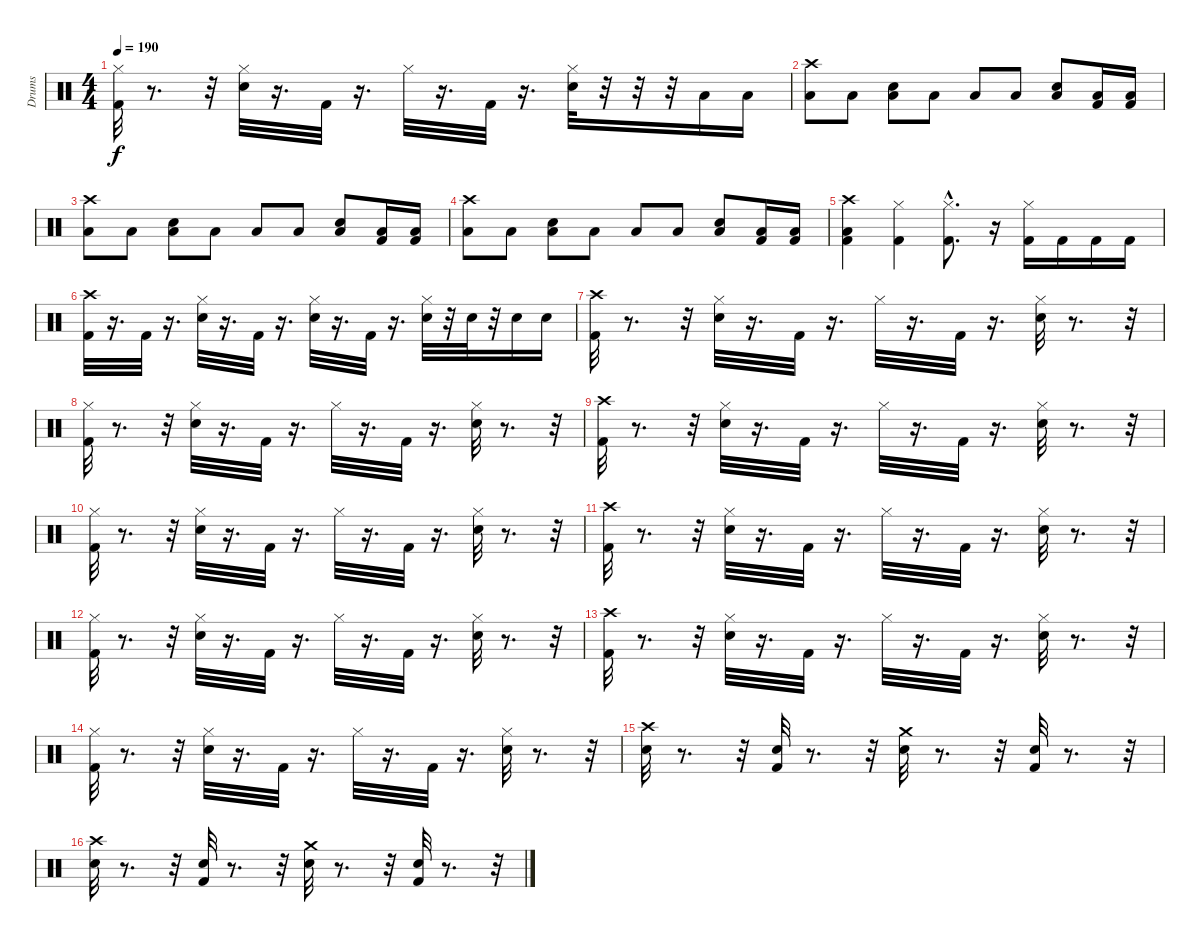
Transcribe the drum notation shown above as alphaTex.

\track ("Drums" "Drums") {instrument percussion}
\staff {score}
\articulation defaults
\ts (4 4)
\tempo 190
\clef neutral
\ks c
("Kick (hit) 2" "Hi-Hat (closed)").32{dy f} r.8{d} r.32 ("Snare (hit) 2" "Hi-Hat (closed)").32 r.16{d} "Kick (hit) 2".32 r.16{d} "Hi-Hat (closed)".32 r.16{d} "Kick (hit) 2".32 r.16{d} ("Snare (hit) 2" "Hi-Hat (closed)").32 r.32 r.32 r.32 "Low Tom (hit)".16 "Low Tom (hit)".16 |
("Crash high (hit)" "Low Tom (hit)").8 "Low Tom (hit)".8 ("Low Tom (hit)" "Snare (hit) 2").8 "Low Tom (hit)".8 "Low Tom (hit)".8 "Low Tom (hit)".8 ("Low Tom (hit)" "Snare (hit) 2").8 ("Low Tom (hit)" "Kick (hit) 2").16 ("Low Tom (hit)" "Kick (hit) 2").16 |
("Crash high (hit)" "Low Tom (hit)").8 "Low Tom (hit)".8 ("Low Tom (hit)" "Snare (hit) 2").8 "Low Tom (hit)".8 "Low Tom (hit)".8 "Low Tom (hit)".8 ("Low Tom (hit)" "Snare (hit) 2").8 ("Low Tom (hit)" "Kick (hit) 2").16 ("Low Tom (hit)" "Kick (hit) 2").16 |
("Crash high (hit)" "Low Tom (hit)").8 "Low Tom (hit)".8 ("Low Tom (hit)" "Snare (hit) 2").8 "Low Tom (hit)".8 "Low Tom (hit)".8 "Low Tom (hit)".8 ("Low Tom (hit)" "Snare (hit) 2").8 ("Low Tom (hit)" "Kick (hit) 2").16 ("Low Tom (hit)" "Kick (hit) 2").16 |
("Crash high (hit)" "Low Tom (hit)" "Kick (hit) 2").4 ("Hi-Hat (closed)" "Kick (hit) 2").4 ("Hi-Hat (closed)"{hac} "Kick (hit) 2"{hac}).8{d} r.16 ("Hi-Hat (closed)" "Kick (hit) 2").16 "Kick (hit) 2".16 "Kick (hit) 2".16 "Kick (hit) 2".16 |
("Crash high (hit)" "Kick (hit) 2").32 r.16{d} "Kick (hit) 2".32 r.16{d} ("Hi-Hat (closed)" "Snare (hit) 2").32 r.16{d} "Kick (hit) 2".32 r.16{d} ("Snare (hit) 2" "Hi-Hat (closed)").32 r.16{d} "Kick (hit) 2".32 r.16{d} ("Hi-Hat (closed)" "Snare (hit) 2").32 r.32 "Snare (hit) 2".32 r.32 "Snare (hit) 2".16 "Snare (hit) 2".16 |
("Kick (hit) 2" "Crash high (hit)").32 r.8{d} r.32 ("Hi-Hat (closed)" "Snare (hit) 2").32 r.16{d} "Kick (hit) 2".32 r.16{d} "Hi-Hat (closed)".32 r.16{d} "Kick (hit) 2".32 r.16{d} ("Hi-Hat (closed)" "Snare (hit) 2").32 r.8{d} r.32 |
("Hi-Hat (closed)" "Kick (hit) 2").32 r.8{d} r.32 ("Snare (hit) 2" "Hi-Hat (closed)").32 r.16{d} "Kick (hit) 2".32 r.16{d} "Hi-Hat (closed)".32 r.16{d} "Kick (hit) 2".32 r.16{d} ("Snare (hit) 2" "Hi-Hat (closed)").32 r.8{d} r.32 |
("Kick (hit) 2" "Crash high (hit)").32 r.8{d} r.32 ("Hi-Hat (closed)" "Snare (hit) 2").32 r.16{d} "Kick (hit) 2".32 r.16{d} "Hi-Hat (closed)".32 r.16{d} "Kick (hit) 2".32 r.16{d} ("Hi-Hat (closed)" "Snare (hit) 2").32 r.8{d} r.32 |
("Hi-Hat (closed)" "Kick (hit) 2").32 r.8{d} r.32 ("Snare (hit) 2" "Hi-Hat (closed)").32 r.16{d} "Kick (hit) 2".32 r.16{d} "Hi-Hat (closed)".32 r.16{d} "Kick (hit) 2".32 r.16{d} ("Snare (hit) 2" "Hi-Hat (closed)").32 r.8{d} r.32 |
("Kick (hit) 2" "Crash high (hit)").32 r.8{d} r.32 ("Hi-Hat (closed)" "Snare (hit) 2").32 r.16{d} "Kick (hit) 2".32 r.16{d} "Hi-Hat (closed)".32 r.16{d} "Kick (hit) 2".32 r.16{d} ("Hi-Hat (closed)" "Snare (hit) 2").32 r.8{d} r.32 |
("Hi-Hat (closed)" "Kick (hit) 2").32 r.8{d} r.32 ("Snare (hit) 2" "Hi-Hat (closed)").32 r.16{d} "Kick (hit) 2".32 r.16{d} "Hi-Hat (closed)".32 r.16{d} "Kick (hit) 2".32 r.16{d} ("Snare (hit) 2" "Hi-Hat (closed)").32 r.8{d} r.32 |
("Kick (hit) 2" "Crash high (hit)").32 r.8{d} r.32 ("Hi-Hat (closed)" "Snare (hit) 2").32 r.16{d} "Kick (hit) 2".32 r.16{d} "Hi-Hat (closed)".32 r.16{d} "Kick (hit) 2".32 r.16{d} ("Hi-Hat (closed)" "Snare (hit) 2").32 r.8{d} r.32 |
("Hi-Hat (closed)" "Kick (hit) 2").32 r.8{d} r.32 ("Snare (hit) 2" "Hi-Hat (closed)").32 r.16{d} "Kick (hit) 2".32 r.16{d} "Hi-Hat (closed)".32 r.16{d} "Kick (hit) 2".32 r.16{d} ("Snare (hit) 2" "Hi-Hat (closed)").32 r.8{d} r.32 |
("Crash high (hit)" "Snare (hit) 2").32 r.8{d} r.32 ("Hand Clap (hit)" "Kick (hit) 2").32 r.8{d} r.32 ("Crash medium (hit)" "Snare (hit) 2").32 r.8{d} r.32 ("Hand Clap (hit)" "Kick (hit) 2").32 r.8{d} r.32 |
("Snare (hit) 2" "Crash high (hit)").32 r.8{d} r.32 ("Hand Clap (hit)" "Kick (hit) 2").32 r.8{d} r.32 ("Crash medium (hit)" "Snare (hit) 2").32 r.8{d} r.32 ("Hand Clap (hit)" "Kick (hit) 2").32 r.8{d} r.32
